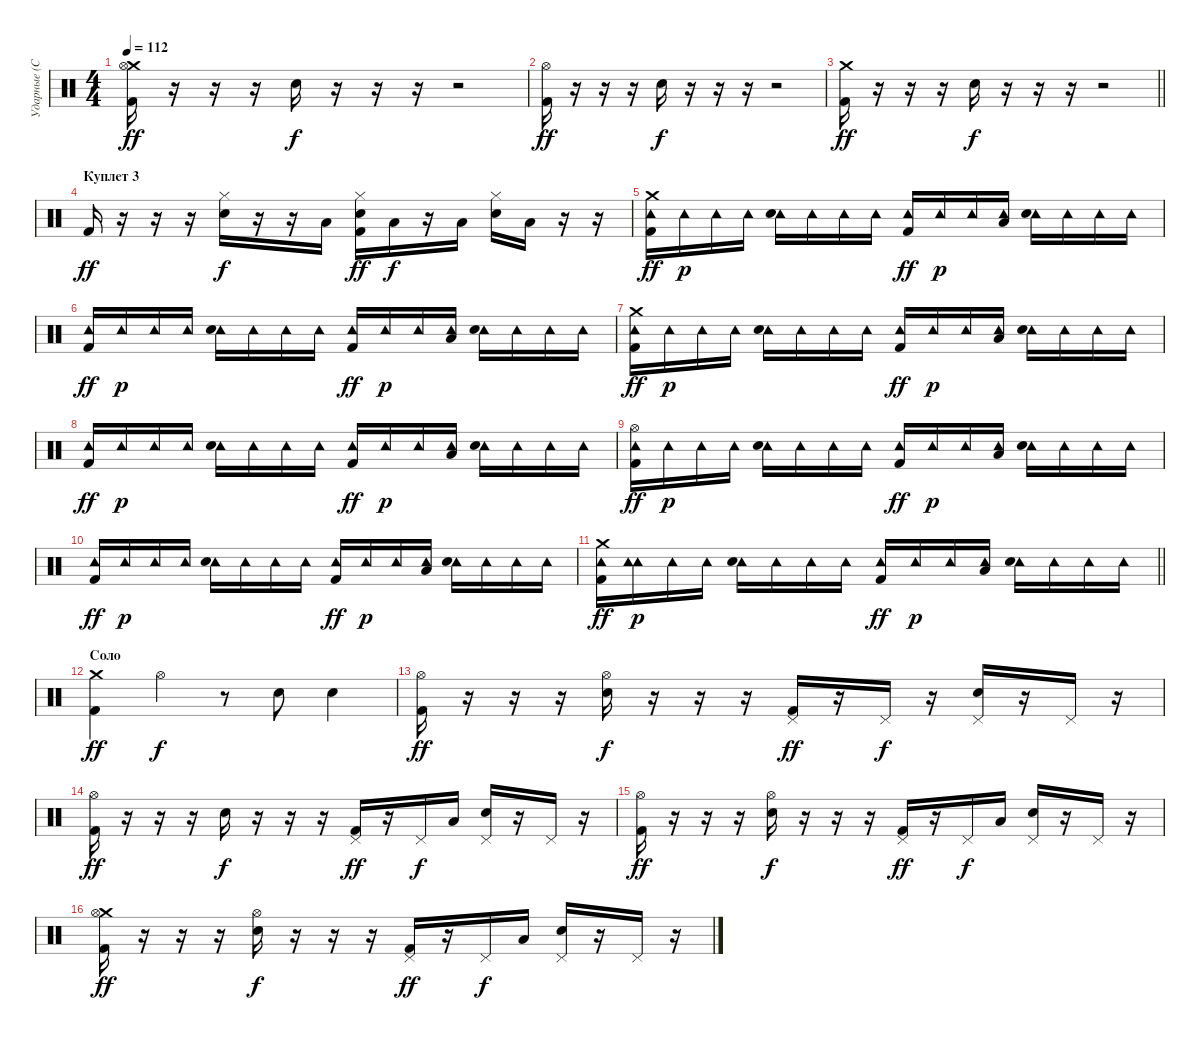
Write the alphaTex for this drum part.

\track ("Ударные (С.Кавагое)" "Ударные (С") {instrument percussion}
\staff {score}
\articulation defaults
\ts (4 4)
\tempo 112
\clef neutral
\ks c
("Crash medium (hit)" "Hi-Hat (open)" "Kick (hit) 2").16{dy ff} r.16 r.16 r.16 "Electric Snare (hit)".16{dy f} r.16 r.16 r.16 r.2 |
("Hi-Hat (open)" "Kick (hit) 2").16{dy ff} r.16 r.16 r.16 "Electric Snare (hit)".16{dy f} r.16 r.16 r.16 r.2 |
\barLineRight lightlight
("Crash medium (hit)" "Kick (hit) 2").16{dy ff} r.16 r.16 r.16 "Electric Snare (hit)".16{dy f} r.16 r.16 r.16 r.2 |
\section ("" "Куплет 3")
"Kick (hit) 2".16{dy ff} r.16 r.16 r.16 ("Hi-Hat (closed)" "Electric Snare (hit)").16{dy f} r.16 r.16 "Low Tom (hit)".16 ("Hi-Hat (closed)" "Electric Snare (hit)" "Kick (hit) 2").16{dy ff} "Low Floor Tom (hit)".16{dy f} r.16 "Low Tom (hit)".16 ("Hi-Hat (closed)" "Electric Snare (hit)").16 "Low Floor Tom (hit)".16 r.16 r.16 |
("Crash medium (hit)" "Tambourine (hit)" "Kick (hit) 2").16{dy ff} "Tambourine (hit)".16{dy p} "Tambourine (hit)".16 "Tambourine (hit)".16 ("Tambourine (hit)" "Electric Snare (hit)").16 "Tambourine (hit)".16 "Tambourine (hit)".16 "Tambourine (hit)".16 ("Tambourine (hit)" "Kick (hit) 2").16{dy ff} "Tambourine (hit)".16{dy p} "Tambourine (hit)".16 ("Tambourine (hit)" "Low Tom (hit)").16 ("Tambourine (hit)" "Electric Snare (hit)").16 "Tambourine (hit)".16 "Tambourine (hit)".16 "Tambourine (hit)".16 |
("Tambourine (hit)" "Kick (hit) 2").16{dy ff} "Tambourine (hit)".16{dy p} "Tambourine (hit)".16 "Tambourine (hit)".16 ("Tambourine (hit)" "Electric Snare (hit)").16 "Tambourine (hit)".16 "Tambourine (hit)".16 "Tambourine (hit)".16 ("Tambourine (hit)" "Kick (hit) 2").16{dy ff} "Tambourine (hit)".16{dy p} "Tambourine (hit)".16 ("Tambourine (hit)" "Low Tom (hit)").16 ("Tambourine (hit)" "Electric Snare (hit)").16 "Tambourine (hit)".16 "Tambourine (hit)".16 "Tambourine (hit)".16 |
("Crash medium (hit)" "Tambourine (hit)" "Kick (hit) 2").16{dy ff} "Tambourine (hit)".16{dy p} "Tambourine (hit)".16 "Tambourine (hit)".16 ("Tambourine (hit)" "Electric Snare (hit)").16 "Tambourine (hit)".16 "Tambourine (hit)".16 "Tambourine (hit)".16 ("Tambourine (hit)" "Kick (hit) 2").16{dy ff} "Tambourine (hit)".16{dy p} "Tambourine (hit)".16 ("Tambourine (hit)" "Low Tom (hit)").16 ("Tambourine (hit)" "Electric Snare (hit)").16 "Tambourine (hit)".16 "Tambourine (hit)".16 "Tambourine (hit)".16 |
("Tambourine (hit)" "Kick (hit) 2").16{dy ff} "Tambourine (hit)".16{dy p} "Tambourine (hit)".16 "Tambourine (hit)".16 ("Tambourine (hit)" "Electric Snare (hit)").16 "Tambourine (hit)".16 "Tambourine (hit)".16 "Tambourine (hit)".16 ("Tambourine (hit)" "Kick (hit) 2").16{dy ff} "Tambourine (hit)".16{dy p} "Tambourine (hit)".16 ("Tambourine (hit)" "Low Tom (hit)").16 ("Tambourine (hit)" "Electric Snare (hit)").16 "Tambourine (hit)".16 "Tambourine (hit)".16 "Tambourine (hit)".16 |
("Hi-Hat (open)" "Tambourine (hit)" "Kick (hit) 2").16{dy ff} "Tambourine (hit)".16{dy p} "Tambourine (hit)".16 "Tambourine (hit)".16 ("Tambourine (hit)" "Electric Snare (hit)").16 "Tambourine (hit)".16 "Tambourine (hit)".16 "Tambourine (hit)".16 ("Tambourine (hit)" "Kick (hit) 2").16{dy ff} "Tambourine (hit)".16{dy p} "Tambourine (hit)".16 ("Tambourine (hit)" "Low Tom (hit)").16 ("Tambourine (hit)" "Electric Snare (hit)").16 "Tambourine (hit)".16 "Tambourine (hit)".16 "Tambourine (hit)".16 |
("Tambourine (hit)" "Kick (hit) 2").16{dy ff} "Tambourine (hit)".16{dy p} "Tambourine (hit)".16 "Tambourine (hit)".16 ("Tambourine (hit)" "Electric Snare (hit)").16 "Tambourine (hit)".16 "Tambourine (hit)".16 "Tambourine (hit)".16 ("Tambourine (hit)" "Kick (hit) 2").16{dy ff} "Tambourine (hit)".16{dy p} "Tambourine (hit)".16 ("Tambourine (hit)" "Low Tom (hit)").16 ("Tambourine (hit)" "Electric Snare (hit)").16 "Tambourine (hit)".16 "Tambourine (hit)".16 "Tambourine (hit)".16 |
\barLineRight lightlight
("Crash medium (hit)" "Tambourine (hit)" "Kick (hit) 2").16{dy ff} ("Tambourine (hit)" "Tambourine (hit)").16{dy p} "Tambourine (hit)".16 "Tambourine (hit)".16 ("Tambourine (hit)" "Electric Snare (hit)").16 "Tambourine (hit)".16 "Tambourine (hit)".16 "Tambourine (hit)".16 ("Tambourine (hit)" "Kick (hit) 2").16{dy ff} "Tambourine (hit)".16{dy p} "Tambourine (hit)".16 ("Tambourine (hit)" "Low Tom (hit)").16 ("Tambourine (hit)" "Electric Snare (hit)").16 "Tambourine (hit)".16 "Tambourine (hit)".16 "Tambourine (hit)".16 |
\section ("" "Соло")
("Crash medium (hit)" "Kick (hit) 2").4{dy ff} "Hi-Hat (open)".4{dy f} r.8 "Electric Snare (hit)".8 "Electric Snare (hit)".4 |
("Hi-Hat (open)" "Kick (hit) 2").16{dy ff} r.16 r.16 r.16 ("Hi-Hat (open)" "Electric Snare (hit)").16{dy f} r.16 r.16 r.16 ("Pedal Hi-Hat (hit)" "Kick (hit) 2").16{dy ff} r.16 "Pedal Hi-Hat (hit)".16{dy f} r.16 ("Pedal Hi-Hat (hit)" "Electric Snare (hit)").16 r.16 "Pedal Hi-Hat (hit)".16 r.16 |
("Hi-Hat (open)" "Kick (hit) 2").16{dy ff} r.16 r.16 r.16 "Electric Snare (hit)".16{dy f} r.16 r.16 r.16 ("Pedal Hi-Hat (hit)" "Kick (hit) 2").16{dy ff} r.16 "Pedal Hi-Hat (hit)".16{dy f} "Low Tom (hit)".16 ("Pedal Hi-Hat (hit)" "Electric Snare (hit)").16 r.16 "Pedal Hi-Hat (hit)".16 r.16 |
("Hi-Hat (open)" "Kick (hit) 2").16{dy ff} r.16 r.16 r.16 ("Hi-Hat (open)" "Electric Snare (hit)").16{dy f} r.16 r.16 r.16 ("Pedal Hi-Hat (hit)" "Kick (hit) 2").16{dy ff} r.16 "Pedal Hi-Hat (hit)".16{dy f} "Low Tom (hit)".16 ("Pedal Hi-Hat (hit)" "Electric Snare (hit)").16 r.16 "Pedal Hi-Hat (hit)".16 r.16 |
("Crash medium (hit)" "Hi-Hat (open)" "Kick (hit) 2").16{dy ff} r.16 r.16 r.16 ("Hi-Hat (open)" "Electric Snare (hit)").16{dy f} r.16 r.16 r.16 ("Pedal Hi-Hat (hit)" "Kick (hit) 2").16{dy ff} r.16 "Pedal Hi-Hat (hit)".16{dy f} "Low Tom (hit)".16 ("Pedal Hi-Hat (hit)" "Electric Snare (hit)").16 r.16 "Pedal Hi-Hat (hit)".16 r.16
